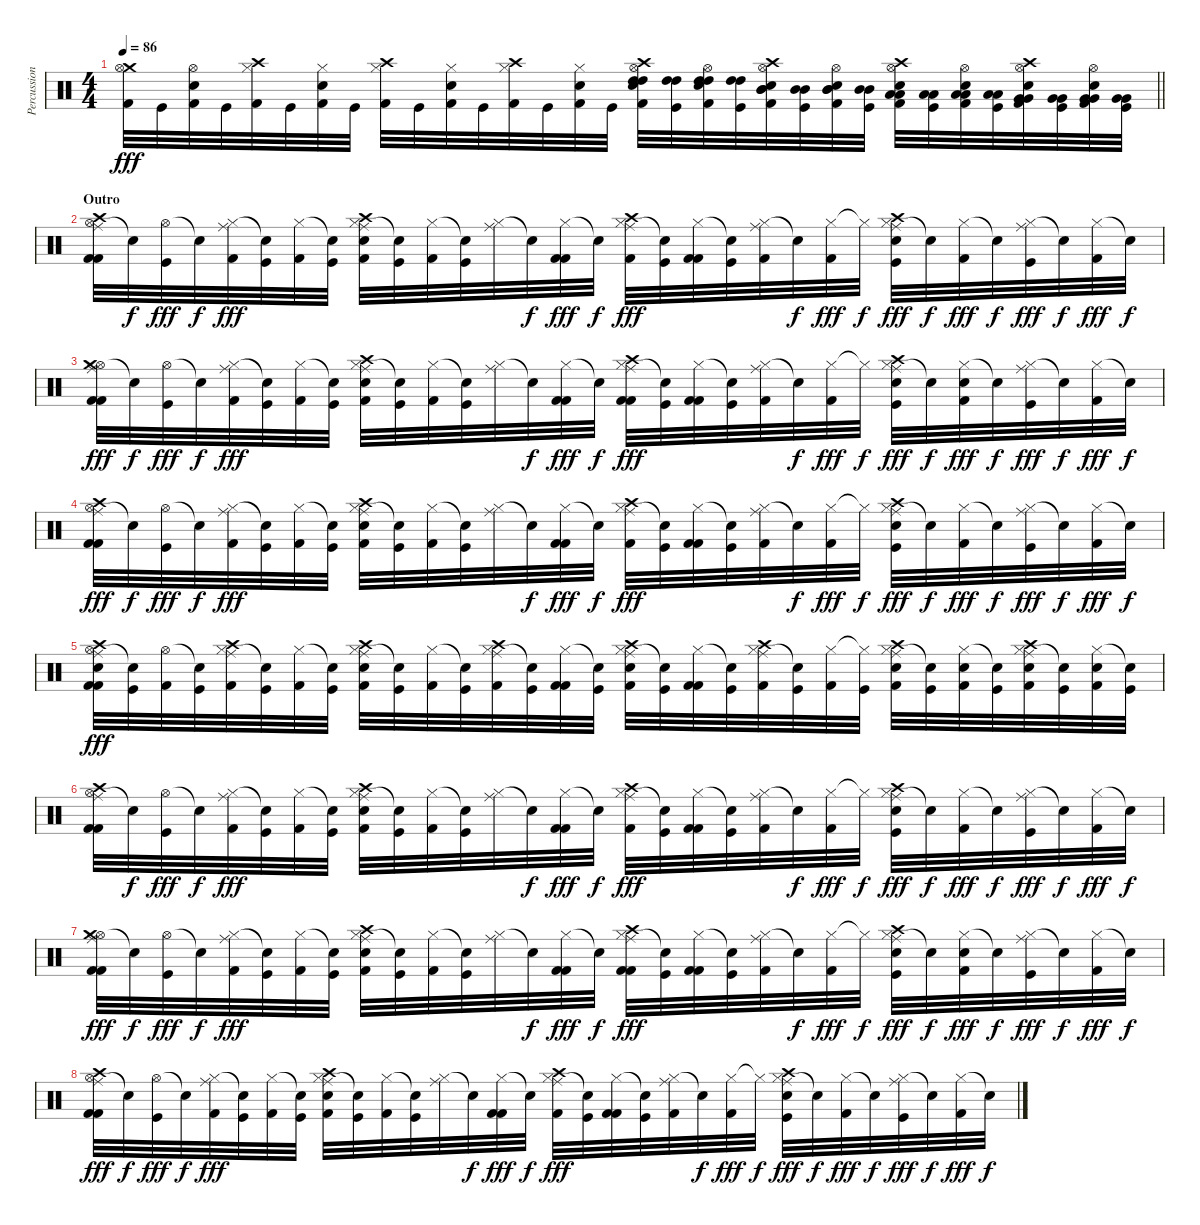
\track ("Percussion" "Percussion") {instrument percussion}
\staff {score}
\articulation defaults
\ts (4 4)
\tempo 86
\clef neutral
\barLineRight lightlight
\ks c
("Crash medium (hit)" "Hi-Hat (open)" "Kick (hit) 2").32{dy fff} "Kick (hit)".32 ("Hi-Hat (open)" "Electric Snare (hit)" "Kick (hit) 2").32 "Kick (hit)".32 ("Crash high (hit)" "Hi-Hat (closed)" "Kick (hit) 2").32 "Kick (hit)".32 ("Hi-Hat (closed)" "Electric Snare (hit)" "Kick (hit) 2").32 "Kick (hit)".32 ("Crash high (hit)" "Hi-Hat (closed)" "Kick (hit) 2").32 "Kick (hit)".32 ("Hi-Hat (closed)" "Electric Snare (hit)" "Kick (hit) 2").32 "Kick (hit)".32 ("Crash high (hit)" "Hi-Hat (closed)" "Kick (hit) 2").32 "Kick (hit)".32 ("Hi-Hat (closed)" "Electric Snare (hit)" "Kick (hit) 2").32 "Kick (hit)".32 ("Crash high (hit)" "Hi-Hat (open)" "High Tom (hit)" "High Tom (hit)" "Electric Snare (hit)" "Kick (hit) 2").32 ("High Tom (hit)" "High Tom (hit)" "Kick (hit)").32 ("Hi-Hat (open)" "High Tom (hit)" "High Tom (hit)" "Electric Snare (hit)" "Kick (hit) 2").32 ("High Tom (hit)" "High Tom (hit)" "Kick (hit)").32 ("Crash high (hit)" "Hi-Hat (open)" "Mid Tom (hit)" "Mid Tom (hit)" "Electric Snare (hit)" "Kick (hit) 2").32 ("Mid Tom (hit)" "Mid Tom (hit)" "Kick (hit)").32 ("Hi-Hat (open)" "Mid Tom (hit)" "Mid Tom (hit)" "Electric Snare (hit)" "Kick (hit) 2").32 ("Mid Tom (hit)" "Mid Tom (hit)" "Kick (hit)").32 ("Crash high (hit)" "Hi-Hat (open)" "Low Tom (hit)" "Low Tom (hit)" "Electric Snare (hit)" "Kick (hit) 2").32 ("Low Tom (hit)" "Low Tom (hit)" "Kick (hit)").32 ("Hi-Hat (open)" "Low Tom (hit)" "Low Tom (hit)" "Electric Snare (hit)" "Kick (hit) 2").32 ("Low Tom (hit)" "Low Tom (hit)" "Kick (hit)").32 ("Crash high (hit)" "Hi-Hat (open)" "Very Low Tom (hit)" "Very Low Tom (hit)" "Electric Snare (hit)" "Kick (hit) 2").32 ("Very Low Tom (hit)" "Very Low Tom (hit)" "Kick (hit)").32 ("Hi-Hat (open)" "Very Low Tom (hit)" "Very Low Tom (hit)" "Electric Snare (hit)" "Kick (hit) 2").32 ("Very Low Tom (hit)" "Very Low Tom (hit)" "Kick (hit)").32 |
\section ("" "Outro")
("Hi-Hat (open)" "Crash high (hit)" "Ride (middle)" "Kick (hit) 2" "Kick (hit) 2").32 "Snare (hit)"{t}.32{dy f} ("Hi-Hat (open)" "Kick (hit)").32{dy fff} "Snare (hit)"{t}.32{dy f} ("Hi-Hat (closed)" "Ride (middle)" "Kick (hit) 2").32{dy fff} ("Snare (hit)"{t} "Kick (hit)").32 ("Hi-Hat (closed)" "Kick (hit) 2").32 ("Snare (hit)"{t} "Kick (hit)").32 ("Hi-Hat (closed)" "Crash high (hit)" "Ride (middle)" "Electric Snare (hit)" "Kick (hit) 2").32 ("Snare (hit)"{t} "Kick (hit)").32 ("Hi-Hat (closed)" "Kick (hit) 2").32 ("Snare (hit)"{t} "Kick (hit)").32 ("Hi-Hat (closed)" "Ride (middle)").32 "Snare (hit)"{t}.32{dy f} ("Hi-Hat (closed)" "Kick (hit) 2" "Kick (hit) 2").32{dy fff} "Snare (hit)"{t}.32{dy f} ("Hi-Hat (closed)" "Crash high (hit)" "Ride (middle)" "Kick (hit) 2").32{dy fff} ("Snare (hit)"{t} "Kick (hit)").32 ("Hi-Hat (closed)" "Kick (hit) 2" "Kick (hit) 2").32 ("Snare (hit)"{t} "Kick (hit)").32 ("Hi-Hat (closed)" "Ride (middle)" "Kick (hit) 2").32 "Snare (hit)"{t}.32{dy f} ("Hi-Hat (closed)" "Kick (hit) 2").32{dy fff} "Hi-Hat (closed)"{t}.32{dy f} ("Hi-Hat (closed)" "Crash high (hit)" "Ride (middle)" "Electric Snare (hit)" "Kick (hit)").32{dy fff} "Snare (hit)"{t}.32{dy f} ("Hi-Hat (closed)" "Kick (hit) 2").32{dy fff} "Snare (hit)"{t}.32{dy f} ("Hi-Hat (closed)" "Ride (middle)" "Kick (hit)").32{dy fff} "Snare (hit)"{t}.32{dy f} ("Hi-Hat (closed)" "Kick (hit) 2").32{dy fff} "Snare (hit)"{t}.32{dy f} |
("Hi-Hat (open)" "Crash medium (hit)" "Ride (middle)" "Kick (hit) 2" "Kick (hit) 2").32{dy fff} "Snare (hit)"{t}.32{dy f} ("Hi-Hat (open)" "Kick (hit)").32{dy fff} "Snare (hit)"{t}.32{dy f} ("Hi-Hat (closed)" "Ride (middle)" "Kick (hit) 2").32{dy fff} ("Snare (hit)"{t} "Kick (hit)").32 ("Hi-Hat (closed)" "Kick (hit) 2").32 ("Snare (hit)"{t} "Kick (hit)").32 ("Hi-Hat (closed)" "Crash high (hit)" "Ride (middle)" "Electric Snare (hit)" "Kick (hit) 2").32 ("Snare (hit)"{t} "Kick (hit)").32 ("Hi-Hat (closed)" "Kick (hit) 2").32 ("Snare (hit)"{t} "Kick (hit)").32 ("Hi-Hat (closed)" "Ride (middle)").32 "Snare (hit)"{t}.32{dy f} ("Hi-Hat (closed)" "Kick (hit) 2" "Kick (hit) 2").32{dy fff} "Snare (hit)"{t}.32{dy f} ("Hi-Hat (closed)" "Crash high (hit)" "Ride (middle)" "Kick (hit) 2" "Kick (hit) 2").32{dy fff} ("Snare (hit)"{t} "Kick (hit)").32 ("Hi-Hat (closed)" "Kick (hit) 2" "Kick (hit) 2").32 ("Snare (hit)"{t} "Kick (hit)").32 ("Hi-Hat (closed)" "Ride (middle)" "Kick (hit) 2").32 "Snare (hit)"{t}.32{dy f} ("Hi-Hat (closed)" "Kick (hit) 2").32{dy fff} "Hi-Hat (closed)"{t}.32{dy f} ("Hi-Hat (closed)" "Crash high (hit)" "Ride (middle)" "Electric Snare (hit)" "Kick (hit)").32{dy fff} "Snare (hit)"{t}.32{dy f} ("Hi-Hat (closed)" "Electric Snare (hit)" "Kick (hit) 2").32{dy fff} "Snare (hit)"{t}.32{dy f} ("Hi-Hat (closed)" "Ride (middle)" "Kick (hit)").32{dy fff} "Snare (hit)"{t}.32{dy f} ("Hi-Hat (closed)" "Kick (hit) 2").32{dy fff} "Snare (hit)"{t}.32{dy f} |
("Hi-Hat (open)" "Crash high (hit)" "Ride (middle)" "Kick (hit) 2" "Kick (hit) 2").32{dy fff} "Snare (hit)"{t}.32{dy f} ("Hi-Hat (open)" "Kick (hit)").32{dy fff} "Snare (hit)"{t}.32{dy f} ("Hi-Hat (closed)" "Ride (middle)" "Kick (hit) 2").32{dy fff} ("Snare (hit)"{t} "Kick (hit)").32 ("Hi-Hat (closed)" "Kick (hit) 2").32 ("Snare (hit)"{t} "Kick (hit)").32 ("Hi-Hat (closed)" "Crash high (hit)" "Ride (middle)" "Electric Snare (hit)" "Kick (hit) 2").32 ("Snare (hit)"{t} "Kick (hit)").32 ("Hi-Hat (closed)" "Kick (hit) 2").32 ("Snare (hit)"{t} "Kick (hit)").32 ("Hi-Hat (closed)" "Ride (middle)").32 "Snare (hit)"{t}.32{dy f} ("Hi-Hat (closed)" "Kick (hit) 2" "Kick (hit) 2").32{dy fff} "Snare (hit)"{t}.32{dy f} ("Hi-Hat (closed)" "Crash high (hit)" "Ride (middle)" "Kick (hit) 2").32{dy fff} ("Snare (hit)"{t} "Kick (hit)").32 ("Hi-Hat (closed)" "Kick (hit) 2" "Kick (hit) 2").32 ("Snare (hit)"{t} "Kick (hit)").32 ("Hi-Hat (closed)" "Ride (middle)" "Kick (hit) 2").32 "Snare (hit)"{t}.32{dy f} ("Hi-Hat (closed)" "Kick (hit) 2").32{dy fff} "Hi-Hat (closed)"{t}.32{dy f} ("Hi-Hat (closed)" "Crash high (hit)" "Ride (middle)" "Electric Snare (hit)" "Kick (hit)").32{dy fff} "Snare (hit)"{t}.32{dy f} ("Hi-Hat (closed)" "Kick (hit) 2").32{dy fff} "Snare (hit)"{t}.32{dy f} ("Hi-Hat (closed)" "Ride (middle)" "Kick (hit)").32{dy fff} "Snare (hit)"{t}.32{dy f} ("Hi-Hat (closed)" "Kick (hit) 2").32{dy fff} "Snare (hit)"{t}.32{dy f} |
("Hi-Hat (open)" "Crash high (hit)" "Ride (middle)" "Electric Snare (hit)" "Kick (hit) 2" "Kick (hit) 2").32{dy fff} ("Snare (hit)"{t} "Kick (hit)").32 ("Hi-Hat (open)" "Kick (hit) 2").32 ("Snare (hit)"{t} "Kick (hit)").32 ("Hi-Hat (closed)" "Ride (middle)" "Crash high (hit)" "Kick (hit) 2").32 ("Snare (hit)"{t} "Kick (hit)").32 ("Hi-Hat (closed)" "Kick (hit) 2").32 ("Snare (hit)"{t} "Kick (hit)").32 ("Hi-Hat (closed)" "Crash high (hit)" "Ride (middle)" "Electric Snare (hit)" "Kick (hit) 2").32 ("Snare (hit)"{t} "Kick (hit)").32 ("Hi-Hat (closed)" "Kick (hit) 2").32 ("Snare (hit)"{t} "Kick (hit)").32 ("Hi-Hat (closed)" "Ride (middle)" "Crash high (hit)" "Kick (hit) 2").32 ("Snare (hit)"{t} "Kick (hit)").32 ("Hi-Hat (closed)" "Kick (hit) 2" "Kick (hit) 2").32 ("Snare (hit)"{t} "Kick (hit)").32 ("Hi-Hat (closed)" "Crash high (hit)" "Ride (middle)" "Electric Snare (hit)" "Kick (hit) 2").32 ("Snare (hit)"{t} "Kick (hit)").32 ("Hi-Hat (closed)" "Kick (hit) 2" "Kick (hit) 2").32 ("Snare (hit)"{t} "Kick (hit)").32 ("Hi-Hat (closed)" "Ride (middle)" "Crash high (hit)" "Kick (hit) 2").32 ("Snare (hit)"{t} "Kick (hit)").32 ("Hi-Hat (closed)" "Kick (hit) 2").32 ("Hi-Hat (closed)"{t} "Kick (hit)").32 ("Hi-Hat (closed)" "Crash high (hit)" "Ride (middle)" "Electric Snare (hit)" "Kick (hit) 2").32 ("Snare (hit)"{t} "Kick (hit)").32 ("Hi-Hat (closed)" "Electric Snare (hit)" "Kick (hit) 2").32 ("Snare (hit)"{t} "Kick (hit)").32 ("Hi-Hat (closed)" "Ride (middle)" "Crash high (hit)" "Electric Snare (hit)" "Kick (hit) 2").32 ("Snare (hit)"{t} "Kick (hit)").32 ("Hi-Hat (closed)" "Electric Snare (hit)" "Kick (hit) 2").32 ("Snare (hit)"{t} "Kick (hit)").32 |
("Hi-Hat (open)" "Crash high (hit)" "Ride (middle)" "Kick (hit) 2" "Kick (hit) 2").32 "Snare (hit)"{t}.32{dy f} ("Hi-Hat (open)" "Kick (hit)").32{dy fff} "Snare (hit)"{t}.32{dy f} ("Hi-Hat (closed)" "Ride (middle)" "Kick (hit) 2").32{dy fff} ("Snare (hit)"{t} "Kick (hit)").32 ("Hi-Hat (closed)" "Kick (hit) 2").32 ("Snare (hit)"{t} "Kick (hit)").32 ("Hi-Hat (closed)" "Crash high (hit)" "Ride (middle)" "Electric Snare (hit)" "Kick (hit) 2").32 ("Snare (hit)"{t} "Kick (hit)").32 ("Hi-Hat (closed)" "Kick (hit) 2").32 ("Snare (hit)"{t} "Kick (hit)").32 ("Hi-Hat (closed)" "Ride (middle)").32 "Snare (hit)"{t}.32{dy f} ("Hi-Hat (closed)" "Kick (hit) 2" "Kick (hit) 2").32{dy fff} "Snare (hit)"{t}.32{dy f} ("Hi-Hat (closed)" "Crash high (hit)" "Ride (middle)" "Kick (hit) 2").32{dy fff} ("Snare (hit)"{t} "Kick (hit)").32 ("Hi-Hat (closed)" "Kick (hit) 2" "Kick (hit) 2").32 ("Snare (hit)"{t} "Kick (hit)").32 ("Hi-Hat (closed)" "Ride (middle)" "Kick (hit) 2").32 "Snare (hit)"{t}.32{dy f} ("Hi-Hat (closed)" "Kick (hit) 2").32{dy fff} "Hi-Hat (closed)"{t}.32{dy f} ("Hi-Hat (closed)" "Crash high (hit)" "Ride (middle)" "Electric Snare (hit)" "Kick (hit)").32{dy fff} "Snare (hit)"{t}.32{dy f} ("Hi-Hat (closed)" "Kick (hit) 2").32{dy fff} "Snare (hit)"{t}.32{dy f} ("Hi-Hat (closed)" "Ride (middle)" "Kick (hit)").32{dy fff} "Snare (hit)"{t}.32{dy f} ("Hi-Hat (closed)" "Kick (hit) 2").32{dy fff} "Snare (hit)"{t}.32{dy f} |
("Hi-Hat (open)" "Crash medium (hit)" "Ride (middle)" "Kick (hit) 2" "Kick (hit) 2").32{dy fff} "Snare (hit)"{t}.32{dy f} ("Hi-Hat (open)" "Kick (hit)").32{dy fff} "Snare (hit)"{t}.32{dy f} ("Hi-Hat (closed)" "Ride (middle)" "Kick (hit) 2").32{dy fff} ("Snare (hit)"{t} "Kick (hit)").32 ("Hi-Hat (closed)" "Kick (hit) 2").32 ("Snare (hit)"{t} "Kick (hit)").32 ("Hi-Hat (closed)" "Crash high (hit)" "Ride (middle)" "Electric Snare (hit)" "Kick (hit) 2").32 ("Snare (hit)"{t} "Kick (hit)").32 ("Hi-Hat (closed)" "Kick (hit) 2").32 ("Snare (hit)"{t} "Kick (hit)").32 ("Hi-Hat (closed)" "Ride (middle)").32 "Snare (hit)"{t}.32{dy f} ("Hi-Hat (closed)" "Kick (hit) 2" "Kick (hit) 2").32{dy fff} "Snare (hit)"{t}.32{dy f} ("Hi-Hat (closed)" "Crash high (hit)" "Ride (middle)" "Kick (hit) 2" "Kick (hit) 2").32{dy fff} ("Snare (hit)"{t} "Kick (hit)").32 ("Hi-Hat (closed)" "Kick (hit) 2" "Kick (hit) 2").32 ("Snare (hit)"{t} "Kick (hit)").32 ("Hi-Hat (closed)" "Ride (middle)" "Kick (hit) 2").32 "Snare (hit)"{t}.32{dy f} ("Hi-Hat (closed)" "Kick (hit) 2").32{dy fff} "Hi-Hat (closed)"{t}.32{dy f} ("Hi-Hat (closed)" "Crash high (hit)" "Ride (middle)" "Electric Snare (hit)" "Kick (hit)").32{dy fff} "Snare (hit)"{t}.32{dy f} ("Hi-Hat (closed)" "Electric Snare (hit)" "Kick (hit) 2").32{dy fff} "Snare (hit)"{t}.32{dy f} ("Hi-Hat (closed)" "Ride (middle)" "Kick (hit)").32{dy fff} "Snare (hit)"{t}.32{dy f} ("Hi-Hat (closed)" "Kick (hit) 2").32{dy fff} "Snare (hit)"{t}.32{dy f} |
("Hi-Hat (open)" "Crash high (hit)" "Ride (middle)" "Kick (hit) 2" "Kick (hit) 2").32{dy fff} "Snare (hit)"{t}.32{dy f} ("Hi-Hat (open)" "Kick (hit)").32{dy fff} "Snare (hit)"{t}.32{dy f} ("Hi-Hat (closed)" "Ride (middle)" "Kick (hit) 2").32{dy fff} ("Snare (hit)"{t} "Kick (hit)").32 ("Hi-Hat (closed)" "Kick (hit) 2").32 ("Snare (hit)"{t} "Kick (hit)").32 ("Hi-Hat (closed)" "Crash high (hit)" "Ride (middle)" "Electric Snare (hit)" "Kick (hit) 2").32 ("Snare (hit)"{t} "Kick (hit)").32 ("Hi-Hat (closed)" "Kick (hit) 2").32 ("Snare (hit)"{t} "Kick (hit)").32 ("Hi-Hat (closed)" "Ride (middle)").32 "Snare (hit)"{t}.32{dy f} ("Hi-Hat (closed)" "Kick (hit) 2" "Kick (hit) 2").32{dy fff} "Snare (hit)"{t}.32{dy f} ("Hi-Hat (closed)" "Crash high (hit)" "Ride (middle)" "Kick (hit) 2").32{dy fff} ("Snare (hit)"{t} "Kick (hit)").32 ("Hi-Hat (closed)" "Kick (hit) 2" "Kick (hit) 2").32 ("Snare (hit)"{t} "Kick (hit)").32 ("Hi-Hat (closed)" "Ride (middle)" "Kick (hit) 2").32 "Snare (hit)"{t}.32{dy f} ("Hi-Hat (closed)" "Kick (hit) 2").32{dy fff} "Hi-Hat (closed)"{t}.32{dy f} ("Hi-Hat (closed)" "Crash high (hit)" "Ride (middle)" "Electric Snare (hit)" "Kick (hit)").32{dy fff} "Snare (hit)"{t}.32{dy f} ("Hi-Hat (closed)" "Kick (hit) 2").32{dy fff} "Snare (hit)"{t}.32{dy f} ("Hi-Hat (closed)" "Ride (middle)" "Kick (hit)").32{dy fff} "Snare (hit)"{t}.32{dy f} ("Hi-Hat (closed)" "Kick (hit) 2").32{dy fff} "Snare (hit)"{t}.32{dy f}
